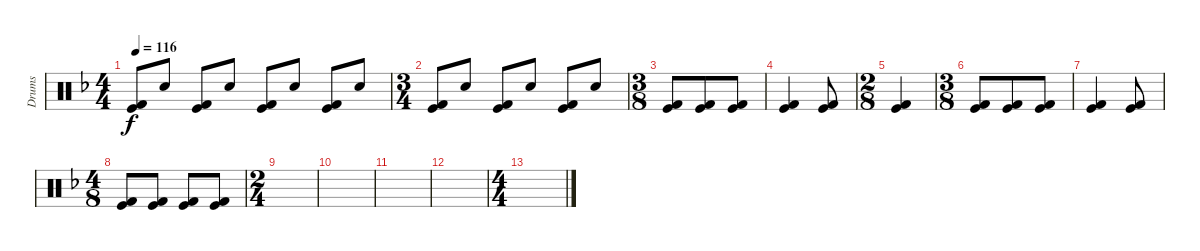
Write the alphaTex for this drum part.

\track ("Drums" "Drums") {instrument percussion}
\staff {score}
\articulation defaults
\ts (4 4)
\tempo 116
\clef neutral
\ks f
("Kick (hit)" "Kick (hit) 2").8{dy f} "Snare (hit) 2".8 ("Kick (hit)" "Kick (hit) 2").8 "Snare (hit) 2".8 ("Kick (hit)" "Kick (hit) 2").8 "Snare (hit) 2".8 ("Kick (hit)" "Kick (hit) 2").8 "Snare (hit) 2".8 |
\ts (3 4)
("Kick (hit)" "Kick (hit) 2").8 "Snare (hit) 2".8 ("Kick (hit)" "Kick (hit) 2").8 "Snare (hit) 2".8 ("Kick (hit)" "Kick (hit) 2").8 "Snare (hit) 2".8 |
\ts (3 8)
("Kick (hit)" "Kick (hit) 2").8 ("Kick (hit)" "Kick (hit) 2").8 ("Kick (hit)" "Kick (hit) 2").8 |
("Kick (hit)" "Kick (hit) 2").4 ("Kick (hit)" "Kick (hit) 2").8 |
\ts (2 8)
("Kick (hit)" "Kick (hit) 2").4 |
\ts (3 8)
("Kick (hit)" "Kick (hit) 2").8 ("Kick (hit)" "Kick (hit) 2").8 ("Kick (hit)" "Kick (hit) 2").8 |
("Kick (hit)" "Kick (hit) 2").4 ("Kick (hit)" "Kick (hit) 2").8 |
\ts (4 8)
("Kick (hit)" "Kick (hit) 2").8 ("Kick (hit)" "Kick (hit) 2").8 ("Kick (hit)" "Kick (hit) 2").8 ("Kick (hit)" "Kick (hit) 2").8 |
\ts (2 4)
|
|
|
|
\ts (4 4)
